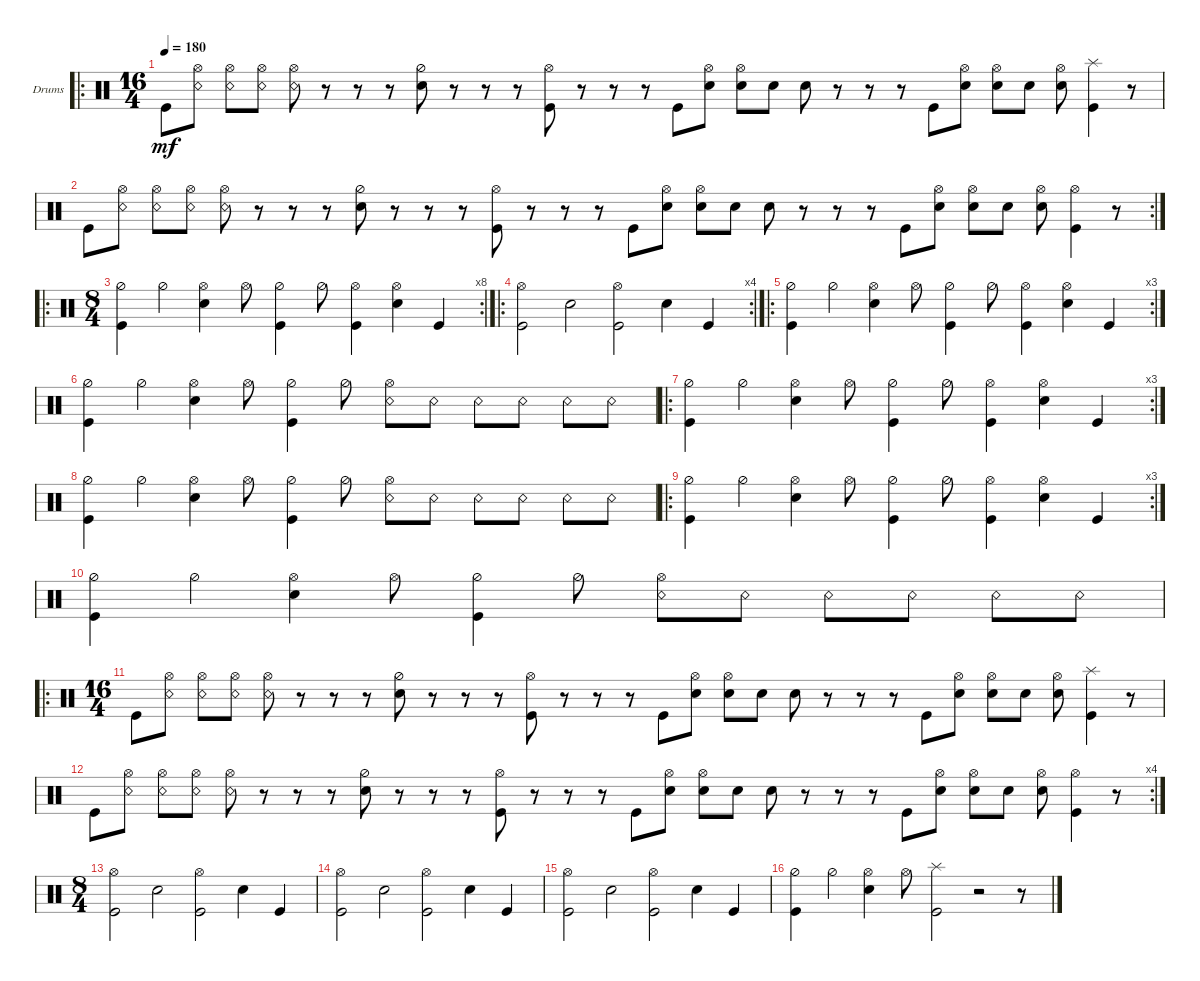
\bracketExtendMode groupsimilarinstruments
\firstSystemTrackNameOrientation horizontal
\otherSystemsTrackNameOrientation horizontal
\track ("Drumkit" "Drums") {instrument percussion}
\staff {score}
\articulation defaults
\ro
\ts (16 4)
\tempo 180
\clef neutral
\ks c "Kick (hit)".8{dy mf}
("Snare (rim shot)" "Hi-Hat (open)").8 ("Snare (rim shot)" "Hi-Hat (open)").8 ("Snare (rim shot)" "Hi-Hat (open)").8 ("Snare (rim shot)" "Hi-Hat (open)").8 r.8 r.8 r.8 ("Snare (hit) 2" "Hi-Hat (half)").8 r.8 r.8 r.8 ("Kick (hit)" "Hi-Hat (open)").8 r.8 r.8 r.8 "Kick (hit)".8 ("Snare (hit) 2" "Hi-Hat (open)").8 ("Snare (hit) 2" "Hi-Hat (open)").8 "Snare (hit) 2".8 "Snare (hit) 2".8 r.8 r.8 r.8 "Kick (hit)".8 ("Snare (hit) 2" "Hi-Hat (open)").8 ("Snare (hit) 2" "Hi-Hat (open)").8 "Snare (hit) 2".8 ("Snare (hit) 2" "Hi-Hat (open)").8 ("Kick (hit)" "Splash (hit)").4 r.8 |
\rc 2 "Kick (hit)".8
("Snare (rim shot)" "Hi-Hat (open)").8 ("Snare (rim shot)" "Hi-Hat (open)").8 ("Snare (rim shot)" "Hi-Hat (open)").8 ("Snare (rim shot)" "Hi-Hat (open)").8 r.8 r.8 r.8 ("Snare (hit) 2" "Hi-Hat (half)").8 r.8 r.8 r.8 ("Kick (hit)" "Hi-Hat (open)").8 r.8 r.8 r.8 "Kick (hit)".8 ("Snare (hit) 2" "Hi-Hat (open)").8 ("Snare (hit) 2" "Hi-Hat (open)").8 "Snare (hit) 2".8 "Snare (hit) 2".8 r.8 r.8 r.8 "Kick (hit)".8 ("Snare (hit) 2" "Hi-Hat (open)").8 ("Snare (hit) 2" "Hi-Hat (open)").8 "Snare (hit) 2".8 ("Snare (hit) 2" "Hi-Hat (open)").8 ("Kick (hit)" "Hi-Hat (open)").4 r.8 |
\ro
\rc 8
\ts (8 4)
("Hi-Hat (half)" "Kick (hit)").4 "Hi-Hat (half)".4 ("Hi-Hat (open)" "Snare (hit) 2").4 "Hi-Hat (open)".8 ("Hi-Hat (half)" "Kick (hit)").4 "Hi-Hat (half)".8 ("Hi-Hat (open)" "Kick (hit)").4 ("Hi-Hat (open)" "Snare (hit) 2").4 "Kick (hit)".4 |
\ro
\rc 4
("Kick (hit)" "Hi-Hat (open)").2 "Snare (hit) 2".2 ("Kick (hit)" "Hi-Hat (open)").2 "Snare (hit) 2".4 "Kick (hit)".4 |
\ro
\rc 3
("Hi-Hat (half)" "Kick (hit)").4 "Hi-Hat (half)".4 ("Hi-Hat (open)" "Snare (hit) 2").4 "Hi-Hat (open)".8 ("Hi-Hat (half)" "Kick (hit)").4 "Hi-Hat (half)".8 ("Hi-Hat (open)" "Kick (hit)").4 ("Hi-Hat (open)" "Snare (hit) 2").4 "Kick (hit)".4 |
("Hi-Hat (half)" "Kick (hit)").4 "Hi-Hat (half)".4 ("Hi-Hat (open)" "Snare (hit) 2").4 "Hi-Hat (open)".8 ("Hi-Hat (half)" "Kick (hit)").4 "Hi-Hat (half)".8 ("Hi-Hat (open)" "Snare (rim shot)").8 "Snare (rim shot)".8 "Snare (rim shot)".8 "Snare (rim shot)".8 "Snare (rim shot)".8 "Snare (rim shot)".8 |
\ro
\rc 3
("Hi-Hat (half)" "Kick (hit)").4 "Hi-Hat (half)".4 ("Hi-Hat (open)" "Snare (hit) 2").4 "Hi-Hat (open)".8 ("Hi-Hat (half)" "Kick (hit)").4 "Hi-Hat (half)".8 ("Hi-Hat (open)" "Kick (hit)").4 ("Hi-Hat (open)" "Snare (hit) 2").4 "Kick (hit)".4 |
("Hi-Hat (half)" "Kick (hit)").4 "Hi-Hat (half)".4 ("Hi-Hat (open)" "Snare (hit) 2").4 "Hi-Hat (open)".8 ("Hi-Hat (half)" "Kick (hit)").4 "Hi-Hat (half)".8 ("Hi-Hat (open)" "Snare (rim shot)").8 "Snare (rim shot)".8 "Snare (rim shot)".8 "Snare (rim shot)".8 "Snare (rim shot)".8 "Snare (rim shot)".8 |
\ro
\rc 3
("Hi-Hat (half)" "Kick (hit)").4 "Hi-Hat (half)".4 ("Hi-Hat (open)" "Snare (hit) 2").4 "Hi-Hat (open)".8 ("Hi-Hat (half)" "Kick (hit)").4 "Hi-Hat (half)".8 ("Hi-Hat (open)" "Kick (hit)").4 ("Hi-Hat (open)" "Snare (hit) 2").4 "Kick (hit)".4 |
("Hi-Hat (half)" "Kick (hit)").4 "Hi-Hat (half)".4 ("Hi-Hat (open)" "Snare (hit) 2").4 "Hi-Hat (open)".8 ("Hi-Hat (half)" "Kick (hit)").4 "Hi-Hat (half)".8 ("Hi-Hat (open)" "Snare (rim shot)").8 "Snare (rim shot)".8 "Snare (rim shot)".8 "Snare (rim shot)".8 "Snare (rim shot)".8 "Snare (rim shot)".8 |
\ro
\ts (16 4)
"Kick (hit)".8 ("Snare (rim shot)" "Hi-Hat (open)").8 ("Snare (rim shot)" "Hi-Hat (open)").8 ("Snare (rim shot)" "Hi-Hat (open)").8 ("Snare (rim shot)" "Hi-Hat (open)").8 r.8 r.8 r.8 ("Snare (hit) 2" "Hi-Hat (half)").8 r.8 r.8 r.8 ("Kick (hit)" "Hi-Hat (open)").8 r.8 r.8 r.8 "Kick (hit)".8 ("Snare (hit) 2" "Hi-Hat (open)").8 ("Snare (hit) 2" "Hi-Hat (open)").8 "Snare (hit) 2".8 "Snare (hit) 2".8 r.8 r.8 r.8 "Kick (hit)".8 ("Snare (hit) 2" "Hi-Hat (open)").8 ("Snare (hit) 2" "Hi-Hat (open)").8 "Snare (hit) 2".8 ("Snare (hit) 2" "Hi-Hat (open)").8 ("Kick (hit)" "Splash (hit)").4 r.8 |
\rc 4 "Kick (hit)".8
("Snare (rim shot)" "Hi-Hat (open)").8 ("Snare (rim shot)" "Hi-Hat (open)").8 ("Snare (rim shot)" "Hi-Hat (open)").8 ("Snare (rim shot)" "Hi-Hat (open)").8 r.8 r.8 r.8 ("Snare (hit) 2" "Hi-Hat (half)").8 r.8 r.8 r.8 ("Kick (hit)" "Hi-Hat (open)").8 r.8 r.8 r.8 "Kick (hit)".8 ("Snare (hit) 2" "Hi-Hat (open)").8 ("Snare (hit) 2" "Hi-Hat (open)").8 "Snare (hit) 2".8 "Snare (hit) 2".8 r.8 r.8 r.8 "Kick (hit)".8 ("Snare (hit) 2" "Hi-Hat (open)").8 ("Snare (hit) 2" "Hi-Hat (open)").8 "Snare (hit) 2".8 ("Snare (hit) 2" "Hi-Hat (open)").8 ("Kick (hit)" "Hi-Hat (open)").4 r.8 |
\ts (8 4)
("Kick (hit)" "Hi-Hat (open)").2 "Snare (hit) 2".2 ("Kick (hit)" "Hi-Hat (open)").2 "Snare (hit) 2".4 "Kick (hit)".4 |
("Kick (hit)" "Hi-Hat (open)").2 "Snare (hit) 2".2 ("Kick (hit)" "Hi-Hat (open)").2 "Snare (hit) 2".4 "Kick (hit)".4 |
("Kick (hit)" "Hi-Hat (open)").2 "Snare (hit) 2".2 ("Kick (hit)" "Hi-Hat (open)").2 "Snare (hit) 2".4 "Kick (hit)".4 |
("Hi-Hat (half)" "Kick (hit)").4 "Hi-Hat (half)".4 ("Hi-Hat (open)" "Snare (hit) 2").4 "Hi-Hat (open)".8 ("Kick (hit)" "Splash (hit)").2 r.2 r.8
